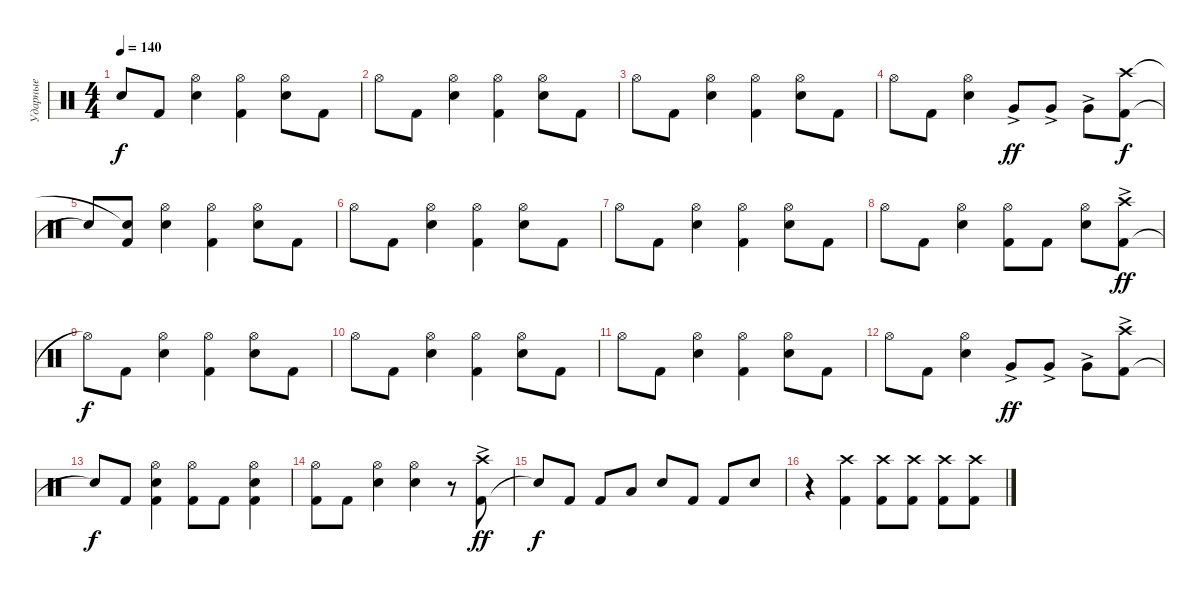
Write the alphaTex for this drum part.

\track ("Ударные" "Ударные") {instrument percussion}
\staff {score}
\articulation defaults
\ts (4 4)
\tempo 140
\clef neutral
\ks c "Snare (hit)"{t}.8{dy f} "Kick (hit) 2".8
("Snare (hit) 2" "Hi-Hat (open)").4 ("Kick (hit) 2" "Hi-Hat (open)").4 ("Snare (hit) 2" "Hi-Hat (open)").8 "Kick (hit) 2".8 |
"Hi-Hat (open)".8 "Kick (hit) 2".8 ("Snare (hit) 2" "Hi-Hat (open)").4 ("Kick (hit) 2" "Hi-Hat (open)").4 ("Snare (hit) 2" "Hi-Hat (open)").8 "Kick (hit) 2".8 |
"Hi-Hat (open)".8 "Kick (hit) 2".8 ("Snare (hit) 2" "Hi-Hat (open)").4 ("Kick (hit) 2" "Hi-Hat (open)").4 ("Snare (hit) 2" "Hi-Hat (open)").8 "Kick (hit) 2".8 |
"Hi-Hat (open)".8 "Kick (hit) 2".8 ("Snare (hit) 2" "Hi-Hat (open)").4 "Very Low Tom (hit)"{ac}.8{dy ff} "Very Low Tom (hit)"{ac}.8 "Very Low Tom (hit)"{ac}.8 ("Kick (hit) 2" "Crash high (hit)").8{dy f} |
"Snare (hit)"{t}.8 ("Kick (hit) 2" "Snare (hit)"{t}).8 ("Snare (hit) 2" "Hi-Hat (open)").4 ("Kick (hit) 2" "Hi-Hat (open)").4 ("Snare (hit) 2" "Hi-Hat (open)").8 "Kick (hit) 2".8 |
"Hi-Hat (open)".8 "Kick (hit) 2".8 ("Snare (hit) 2" "Hi-Hat (open)").4 ("Kick (hit) 2" "Hi-Hat (open)").4 ("Snare (hit) 2" "Hi-Hat (open)").8 "Kick (hit) 2".8 |
"Hi-Hat (open)".8 "Kick (hit) 2".8 ("Snare (hit) 2" "Hi-Hat (open)").4 ("Kick (hit) 2" "Hi-Hat (open)").4 ("Snare (hit) 2" "Hi-Hat (open)").8 "Kick (hit) 2".8 |
"Hi-Hat (open)".8 "Kick (hit) 2".8 ("Snare (hit) 2" "Hi-Hat (open)").4 ("Kick (hit) 2" "Hi-Hat (open)").8 "Kick (hit) 2".8 ("Snare (hit) 2" "Hi-Hat (open)").8 ("Kick (hit) 2" "Crash high (hit)"{ac}).8{dy ff} |
"Hi-Hat (open)"{t}.8{dy f} "Kick (hit) 2".8 ("Snare (hit) 2" "Hi-Hat (open)").4 ("Kick (hit) 2" "Hi-Hat (open)").4 ("Snare (hit) 2" "Hi-Hat (open)").8 "Kick (hit) 2".8 |
"Hi-Hat (open)".8 "Kick (hit) 2".8 ("Snare (hit) 2" "Hi-Hat (open)").4 ("Kick (hit) 2" "Hi-Hat (open)").4 ("Snare (hit) 2" "Hi-Hat (open)").8 "Kick (hit) 2".8 |
"Hi-Hat (open)".8 "Kick (hit) 2".8 ("Snare (hit) 2" "Hi-Hat (open)").4 ("Kick (hit) 2" "Hi-Hat (open)").4 ("Snare (hit) 2" "Hi-Hat (open)").8 "Kick (hit) 2".8 |
"Hi-Hat (open)".8 "Kick (hit) 2".8 ("Snare (hit) 2" "Hi-Hat (open)").4 "Very Low Tom (hit)"{ac}.8{dy ff} "Very Low Tom (hit)"{ac}.8 "Very Low Tom (hit)"{ac}.8 ("Kick (hit) 2"{ac} "Crash high (hit)"{ac}).8 |
"Snare (hit)"{t}.8{dy f} "Kick (hit) 2".8 ("Kick (hit) 2" "Snare (hit) 2" "Hi-Hat (open)").4 ("Kick (hit) 2" "Hi-Hat (open)").8 "Kick (hit) 2".8 ("Kick (hit) 2" "Snare (hit) 2" "Hi-Hat (open)").4 |
("Kick (hit) 2" "Hi-Hat (open)").8 "Kick (hit) 2".8 ("Snare (hit) 2" "Hi-Hat (open)").4 ("Snare (hit) 2" "Hi-Hat (open)").4 r.8 ("Kick (hit) 2"{ac} "Crash high (hit)"{ac}).8{dy ff} |
"Snare (hit)"{t}.8{dy f} "Kick (hit) 2".8 "Kick (hit) 2".8 "Low Tom (hit)".8 "Snare (hit) 2".8 "Kick (hit) 2".8 "Kick (hit) 2".8 "Snare (hit) 2".8 |
r.4 ("Kick (hit) 2" "Crash high (hit)").4 ("Kick (hit) 2" "Crash high (hit)").8 ("Kick (hit) 2" "Crash high (hit)").8 ("Kick (hit) 2" "Crash high (hit)").8 ("Kick (hit) 2" "Crash high (hit)").8
